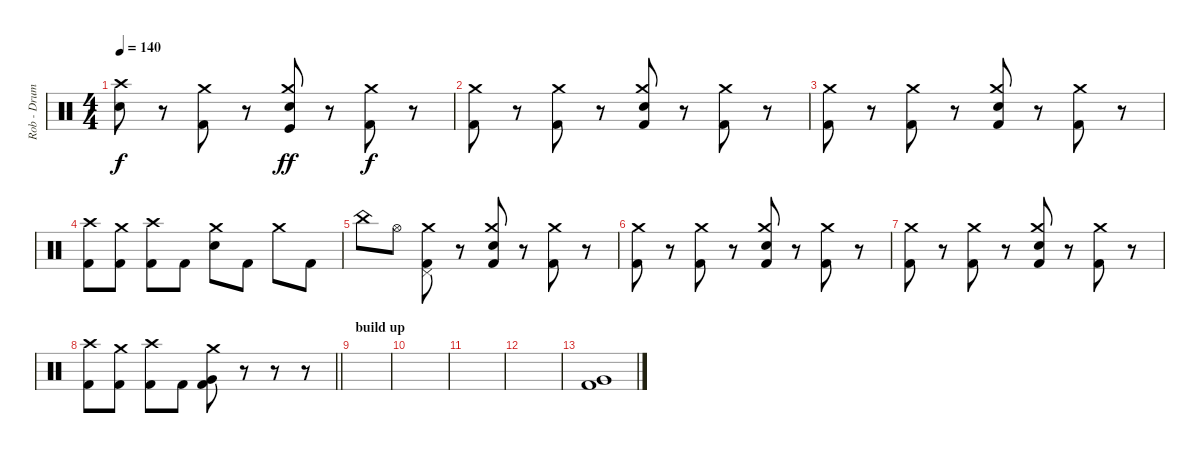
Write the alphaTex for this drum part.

\track ("Rob - Drums" "Rob - Drum") {instrument percussion}
\staff {score}
\articulation defaults
\ts (4 4)
\tempo 140
\clef neutral
\ks c
("Crash high (hit)" "Electric Snare (hit)").8{dy f} r.8 ("Crash medium (hit)" "Kick (hit) 2").8 r.8 ("Crash medium (hit)" "Electric Snare (hit)" "Kick (hit)").8{dy ff} r.8 ("Crash medium (hit)" "Kick (hit) 2").8{dy f} r.8 |
("Crash medium (hit)" "Kick (hit) 2").8 r.8 ("Crash medium (hit)" "Kick (hit) 2").8 r.8 ("Crash medium (hit)" "Electric Snare (hit)" "Kick (hit) 2").8 r.8 ("Crash medium (hit)" "Kick (hit) 2").8 r.8 |
("Crash medium (hit)" "Kick (hit) 2").8 r.8 ("Crash medium (hit)" "Kick (hit) 2").8 r.8 ("Crash medium (hit)" "Electric Snare (hit)" "Kick (hit) 2").8 r.8 ("Crash medium (hit)" "Kick (hit) 2").8 r.8 |
("Crash high (hit)" "Kick (hit) 2").8 ("Crash medium (hit)" "Kick (hit) 2").8 ("Crash high (hit)" "Kick (hit) 2").8 "Kick (hit) 2".8 ("Crash medium (hit)" "Electric Snare (hit)").8 "Kick (hit) 2".8 "Crash medium (hit)".8 "Kick (hit) 2".8 |
"China (hit)".8 "Hi-Hat (open)".8 ("Crash medium (hit)" "Pedal Hi-Hat (hit)" "Kick (hit) 2").8 r.8 ("Crash medium (hit)" "Electric Snare (hit)" "Kick (hit) 2").8 r.8 ("Crash medium (hit)" "Kick (hit) 2").8 r.8 |
("Crash medium (hit)" "Kick (hit) 2").8 r.8 ("Crash medium (hit)" "Kick (hit) 2").8 r.8 ("Crash medium (hit)" "Electric Snare (hit)" "Kick (hit) 2").8 r.8 ("Crash medium (hit)" "Kick (hit) 2").8 r.8 |
("Crash medium (hit)" "Kick (hit) 2").8 r.8 ("Crash medium (hit)" "Kick (hit) 2").8 r.8 ("Crash medium (hit)" "Electric Snare (hit)" "Kick (hit) 2").8 r.8 ("Crash medium (hit)" "Kick (hit) 2").8 r.8 |
\barLineRight lightlight
("Crash high (hit)" "Kick (hit) 2").8 ("Crash medium (hit)" "Kick (hit) 2").8 ("Crash high (hit)" "Kick (hit) 2").8 "Kick (hit) 2".8 ("Crash medium (hit)" "Very Low Tom (hit)" "Kick (hit) 2").8 r.8 r.8 r.8 |
\section ("" "build up")
|
|
|
|
("Very Low Tom (hit)" "Kick (hit) 2").1
